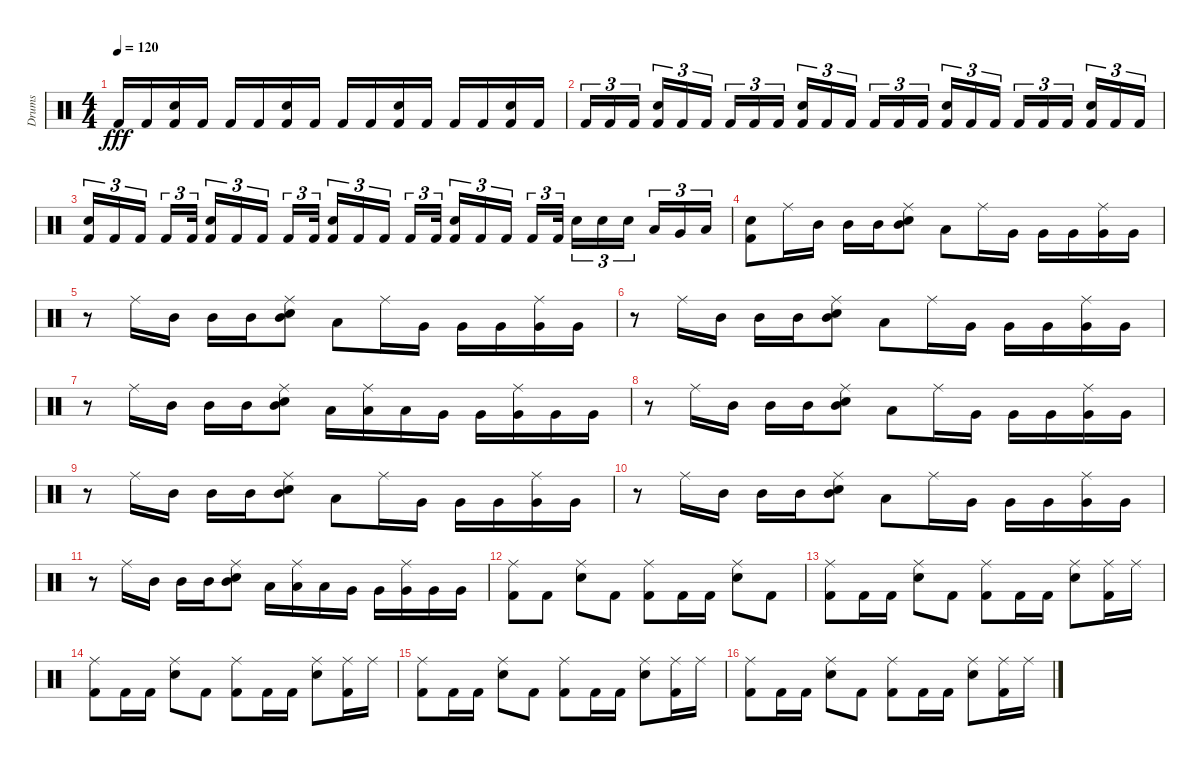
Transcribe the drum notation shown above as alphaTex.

\track ("Drums" "Drums") {instrument percussion}
\staff {score}
\articulation defaults
\ts (4 4)
\tempo 120
\clef neutral
\ks c "Kick (hit) 2".16{dy fff} "Kick (hit) 2".16
("Snare (hit) 2" "Kick (hit) 2").16 "Kick (hit) 2".16 "Kick (hit) 2".16 "Kick (hit) 2".16 ("Snare (hit) 2" "Kick (hit) 2").16 "Kick (hit) 2".16 "Kick (hit) 2".16 "Kick (hit) 2".16 ("Snare (hit) 2" "Kick (hit) 2").16 "Kick (hit) 2".16 "Kick (hit) 2".16 "Kick (hit) 2".16 ("Snare (hit) 2" "Kick (hit) 2").16 "Kick (hit) 2".16 |
"Kick (hit) 2".16{tu (3 2)} "Kick (hit) 2".16{tu (3 2)} "Kick (hit) 2".16{tu (3 2)} ("Snare (hit) 2" "Kick (hit) 2").16{tu (3 2)} "Kick (hit) 2".16{tu (3 2)} "Kick (hit) 2".16{tu (3 2)} "Kick (hit) 2".16{tu (3 2)} "Kick (hit) 2".16{tu (3 2)} "Kick (hit) 2".16{tu (3 2)} ("Snare (hit) 2" "Kick (hit) 2").16{tu (3 2)} "Kick (hit) 2".16{tu (3 2)} "Kick (hit) 2".16{tu (3 2)} "Kick (hit) 2".16{tu (3 2)} "Kick (hit) 2".16{tu (3 2)} "Kick (hit) 2".16{tu (3 2)} ("Snare (hit) 2" "Kick (hit) 2").16{tu (3 2)} "Kick (hit) 2".16{tu (3 2)} "Kick (hit) 2".16{tu (3 2)} "Kick (hit) 2".16{tu (3 2)} "Kick (hit) 2".16{tu (3 2)} "Kick (hit) 2".16{tu (3 2)} ("Snare (hit) 2" "Kick (hit) 2").16{tu (3 2)} "Kick (hit) 2".16{tu (3 2)} "Kick (hit) 2".16{tu (3 2)} |
("Snare (hit) 2" "Kick (hit) 2").16{tu (3 2)} "Kick (hit) 2".16{tu (3 2)} "Kick (hit) 2".16{tu (3 2)} "Kick (hit) 2".16{tu (3 2)} "Kick (hit) 2".32{tu (3 2)} ("Snare (hit) 2" "Kick (hit) 2").16{tu (3 2)} "Kick (hit) 2".16{tu (3 2)} "Kick (hit) 2".16{tu (3 2)} "Kick (hit) 2".16{tu (3 2)} "Kick (hit) 2".32{tu (3 2)} ("Snare (hit) 2" "Kick (hit) 2").16{tu (3 2)} "Kick (hit) 2".16{tu (3 2)} "Kick (hit) 2".16{tu (3 2)} "Kick (hit) 2".16{tu (3 2)} "Kick (hit) 2".32{tu (3 2)} ("Snare (hit) 2" "Kick (hit) 2").16{tu (3 2)} "Kick (hit) 2".16{tu (3 2)} "Kick (hit) 2".16{tu (3 2)} "Kick (hit) 2".16{tu (3 2)} "Kick (hit) 2".32{tu (3 2)} "Snare (hit) 2".16{tu (3 2)} "Snare (hit) 2".16{tu (3 2)} "Snare (hit) 2".16{tu (3 2)} "Low Tom (hit)".16{tu (3 2)} "Very Low Tom (hit)".16{tu (3 2)} "Low Floor Tom (hit)".16{tu (3 2)} |
("Snare (hit) 2" "Kick (hit) 2").8 "Ride (middle)".16 "Mid Tom (hit)".16 "Mid Tom (hit)".16 "Mid Tom (hit)".16 ("Ride (middle)" "Snare (hit) 2" "Mid Tom (hit)").8 "Low Tom (hit)".8 "Ride (middle)".16 "Very Low Tom (hit)".16 "Very Low Tom (hit)".16 "Very Low Tom (hit)".16 ("Ride (middle)" "Very Low Tom (hit)").16 "Very Low Tom (hit)".16 |
r.8 "Ride (middle)".16 "Mid Tom (hit)".16 "Mid Tom (hit)".16 "Mid Tom (hit)".16 ("Ride (middle)" "Snare (hit) 2" "Mid Tom (hit)").8 "Low Tom (hit)".8 "Ride (middle)".16 "Very Low Tom (hit)".16 "Very Low Tom (hit)".16 "Very Low Tom (hit)".16 ("Ride (middle)" "Very Low Tom (hit)").16 "Very Low Tom (hit)".16 |
r.8 "Ride (middle)".16 "Mid Tom (hit)".16 "Mid Tom (hit)".16 "Mid Tom (hit)".16 ("Ride (middle)" "Snare (hit) 2" "Mid Tom (hit)").8 "Low Tom (hit)".8 "Ride (middle)".16 "Very Low Tom (hit)".16 "Very Low Tom (hit)".16 "Very Low Tom (hit)".16 ("Ride (middle)" "Very Low Tom (hit)").16 "Very Low Tom (hit)".16 |
r.8 "Ride (middle)".16 "Mid Tom (hit)".16 "Mid Tom (hit)".16 "Mid Tom (hit)".16 ("Ride (middle)" "Snare (hit) 2" "Mid Tom (hit)").8 "Low Tom (hit)".16 ("Ride (middle)" "Low Tom (hit)").16 "Low Tom (hit)".16 "Very Low Tom (hit)".16 "Very Low Tom (hit)".16 ("Ride (middle)" "Very Low Tom (hit)").16 "Very Low Tom (hit)".16 "Very Low Tom (hit)".16 |
r.8 "Ride (middle)".16 "Mid Tom (hit)".16 "Mid Tom (hit)".16 "Mid Tom (hit)".16 ("Ride (middle)" "Snare (hit) 2" "Mid Tom (hit)").8 "Low Tom (hit)".8 "Ride (middle)".16 "Very Low Tom (hit)".16 "Very Low Tom (hit)".16 "Very Low Tom (hit)".16 ("Ride (middle)" "Very Low Tom (hit)").16 "Very Low Tom (hit)".16 |
r.8 "Ride (middle)".16 "Mid Tom (hit)".16 "Mid Tom (hit)".16 "Mid Tom (hit)".16 ("Ride (middle)" "Snare (hit) 2" "Mid Tom (hit)").8 "Low Tom (hit)".8 "Ride (middle)".16 "Very Low Tom (hit)".16 "Very Low Tom (hit)".16 "Very Low Tom (hit)".16 ("Ride (middle)" "Very Low Tom (hit)").16 "Very Low Tom (hit)".16 |
r.8 "Ride (middle)".16 "Mid Tom (hit)".16 "Mid Tom (hit)".16 "Mid Tom (hit)".16 ("Ride (middle)" "Snare (hit) 2" "Mid Tom (hit)").8 "Low Tom (hit)".8 "Ride (middle)".16 "Very Low Tom (hit)".16 "Very Low Tom (hit)".16 "Very Low Tom (hit)".16 ("Ride (middle)" "Very Low Tom (hit)").16 "Very Low Tom (hit)".16 |
r.8 "Ride (middle)".16 "Mid Tom (hit)".16 "Mid Tom (hit)".16 "Mid Tom (hit)".16 ("Ride (middle)" "Snare (hit) 2" "Mid Tom (hit)").8 "Low Tom (hit)".16 ("Ride (middle)" "Low Tom (hit)").16 "Low Tom (hit)".16 "Very Low Tom (hit)".16 "Very Low Tom (hit)".16 ("Ride (middle)" "Very Low Tom (hit)").16 "Very Low Tom (hit)".16 "Very Low Tom (hit)".16 |
("Ride (middle)" "Kick (hit) 2").8 "Kick (hit) 2".8 ("Ride (middle)" "Electric Snare (hit)").8 "Kick (hit) 2".8 ("Ride (middle)" "Kick (hit) 2").8 "Kick (hit) 2".16 "Kick (hit) 2".16 ("Ride (middle)" "Electric Snare (hit)").8 "Kick (hit) 2".8 |
("Ride (middle)" "Kick (hit) 2").8 "Kick (hit) 2".16 "Kick (hit) 2".16 ("Ride (middle)" "Electric Snare (hit)").8 "Kick (hit) 2".8 ("Ride (middle)" "Kick (hit) 2").8 "Kick (hit) 2".16 "Kick (hit) 2".16 ("Ride (middle)" "Electric Snare (hit)").8 ("Ride (middle)" "Kick (hit) 2").16 "Ride (middle)".16 |
("Ride (middle)" "Kick (hit) 2").8 "Kick (hit) 2".16 "Kick (hit) 2".16 ("Ride (middle)" "Electric Snare (hit)").8 "Kick (hit) 2".8 ("Ride (middle)" "Kick (hit) 2").8 "Kick (hit) 2".16 "Kick (hit) 2".16 ("Ride (middle)" "Electric Snare (hit)").8 ("Ride (middle)" "Kick (hit) 2").16 "Ride (middle)".16 |
("Ride (middle)" "Kick (hit) 2").8 "Kick (hit) 2".16 "Kick (hit) 2".16 ("Ride (middle)" "Electric Snare (hit)").8 "Kick (hit) 2".8 ("Ride (middle)" "Kick (hit) 2").8 "Kick (hit) 2".16 "Kick (hit) 2".16 ("Ride (middle)" "Electric Snare (hit)").8 ("Ride (middle)" "Kick (hit) 2").16 "Ride (middle)".16 |
("Ride (middle)" "Kick (hit) 2").8 "Kick (hit) 2".16 "Kick (hit) 2".16 ("Ride (middle)" "Electric Snare (hit)").8 "Kick (hit) 2".8 ("Ride (middle)" "Kick (hit) 2").8 "Kick (hit) 2".16 "Kick (hit) 2".16 ("Ride (middle)" "Electric Snare (hit)").8 ("Ride (middle)" "Kick (hit) 2").16 "Ride (middle)".16
